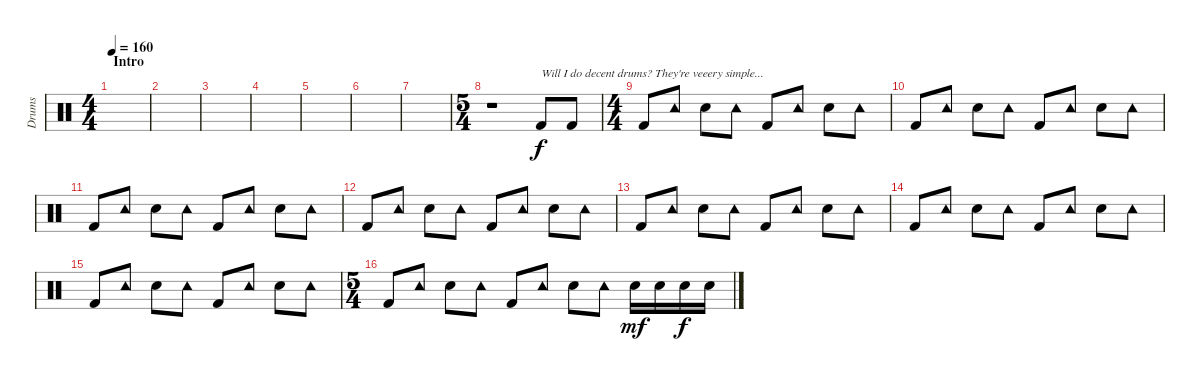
\track ("Drums" "Drums") {instrument percussion}
\staff {score}
\articulation defaults
\ts (4 4)
\section ("" "Intro")
\tempo 160
\clef neutral
\ks c
|
|
|
|
|
|
|
\ts (5 4)
r.1 "Kick (hit) 2".8{txt "Will I do decent drums? They're veeery simple... "} "Kick (hit) 2".8 |
\ts (4 4)
"Kick (hit) 2".8 "Tambourine (hit)".8 "Snare (hit) 2".8 "Tambourine (hit)".8 "Kick (hit) 2".8 "Tambourine (hit)".8 "Snare (hit) 2".8 "Tambourine (hit)".8 |
"Kick (hit) 2".8 "Tambourine (hit)".8 "Snare (hit) 2".8 "Tambourine (hit)".8 "Kick (hit) 2".8 "Tambourine (hit)".8 "Snare (hit) 2".8 "Tambourine (hit)".8 |
"Kick (hit) 2".8 "Tambourine (hit)".8 "Snare (hit) 2".8 "Tambourine (hit)".8 "Kick (hit) 2".8 "Tambourine (hit)".8 "Snare (hit) 2".8 "Tambourine (hit)".8 |
"Kick (hit) 2".8 "Tambourine (hit)".8 "Snare (hit) 2".8 "Tambourine (hit)".8 "Kick (hit) 2".8 "Tambourine (hit)".8 "Snare (hit) 2".8 "Tambourine (hit)".8 |
"Kick (hit) 2".8 "Tambourine (hit)".8 "Snare (hit) 2".8 "Tambourine (hit)".8 "Kick (hit) 2".8 "Tambourine (hit)".8 "Snare (hit) 2".8 "Tambourine (hit)".8 |
"Kick (hit) 2".8 "Tambourine (hit)".8 "Snare (hit) 2".8 "Tambourine (hit)".8 "Kick (hit) 2".8 "Tambourine (hit)".8 "Snare (hit) 2".8 "Tambourine (hit)".8 |
"Kick (hit) 2".8 "Tambourine (hit)".8 "Snare (hit) 2".8 "Tambourine (hit)".8 "Kick (hit) 2".8 "Tambourine (hit)".8 "Snare (hit) 2".8 "Tambourine (hit)".8 |
\ts (5 4)
"Kick (hit) 2".8 "Tambourine (hit)".8 "Snare (hit) 2".8 "Tambourine (hit)".8 "Kick (hit) 2".8 "Tambourine (hit)".8 "Snare (hit) 2".8 "Tambourine (hit)".8 "Snare (hit) 2".16{dy mf} "Snare (hit) 2".16 "Snare (hit) 2".16{dy f} "Snare (hit) 2".16
